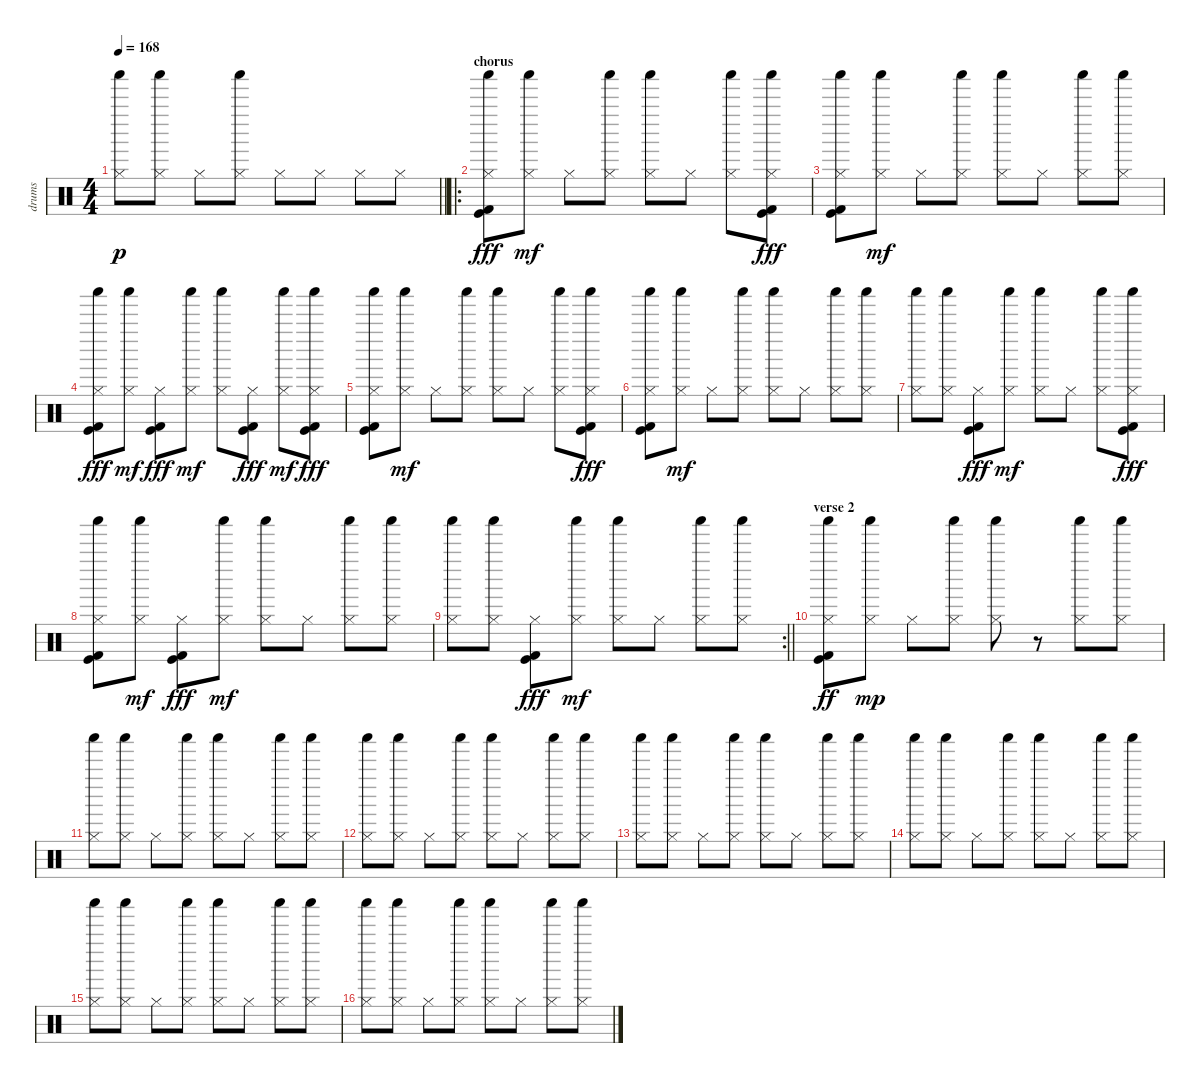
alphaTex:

\track ("drums" "drums") {instrument percussion}
\staff {score}
\articulation defaults
\ts (4 4)
\tempo 168
\clef neutral
\barLineRight lightlight
\ks c
("Hi-Hat (closed)" "Shaker (hit)").8{dy p} ("Hi-Hat (closed)" "Shaker (hit)").8 "Hi-Hat (closed)".8 ("Hi-Hat (closed)" "Shaker (hit)").8 "Hi-Hat (closed)".8 "Hi-Hat (closed)".8 "Hi-Hat (closed)".8 "Hi-Hat (closed)".8 |
\ro
\section ("" "chorus ")
("Hi-Hat (closed)" "Shaker (hit)" "Kick (hit) 2" "Kick (hit)").8{dy fff} ("Hi-Hat (closed)" "Shaker (hit)").8{dy mf} "Hi-Hat (closed)".8 ("Hi-Hat (closed)" "Shaker (hit)").8 ("Hi-Hat (closed)" "Shaker (hit)").8 "Hi-Hat (closed)".8 ("Hi-Hat (closed)" "Shaker (hit)").8 ("Hi-Hat (closed)" "Shaker (hit)" "Kick (hit) 2" "Kick (hit)").8{dy fff} |
("Hi-Hat (closed)" "Shaker (hit)" "Kick (hit) 2" "Kick (hit)").8 ("Hi-Hat (closed)" "Shaker (hit)").8{dy mf} "Hi-Hat (closed)".8 ("Hi-Hat (closed)" "Shaker (hit)").8 ("Hi-Hat (closed)" "Shaker (hit)").8 "Hi-Hat (closed)".8 ("Hi-Hat (closed)" "Shaker (hit)").8 ("Hi-Hat (closed)" "Shaker (hit)").8 |
("Hi-Hat (closed)" "Shaker (hit)" "Kick (hit) 2" "Kick (hit)").8{dy fff} ("Hi-Hat (closed)" "Shaker (hit)").8{dy mf} ("Hi-Hat (closed)" "Kick (hit) 2" "Kick (hit)").8{dy fff} ("Hi-Hat (closed)" "Shaker (hit)").8{dy mf} ("Hi-Hat (closed)" "Shaker (hit)").8 ("Hi-Hat (closed)" "Kick (hit) 2" "Kick (hit)").8{dy fff} ("Hi-Hat (closed)" "Shaker (hit)").8{dy mf} ("Hi-Hat (closed)" "Shaker (hit)" "Kick (hit) 2" "Kick (hit)").8{dy fff} |
("Hi-Hat (closed)" "Shaker (hit)" "Kick (hit) 2" "Kick (hit)").8 ("Hi-Hat (closed)" "Shaker (hit)").8{dy mf} "Hi-Hat (closed)".8 ("Hi-Hat (closed)" "Shaker (hit)").8 ("Hi-Hat (closed)" "Shaker (hit)").8 "Hi-Hat (closed)".8 ("Hi-Hat (closed)" "Shaker (hit)").8 ("Hi-Hat (closed)" "Shaker (hit)" "Kick (hit) 2" "Kick (hit)").8{dy fff} |
("Hi-Hat (closed)" "Shaker (hit)" "Kick (hit) 2" "Kick (hit)").8 ("Hi-Hat (closed)" "Shaker (hit)").8{dy mf} "Hi-Hat (closed)".8 ("Hi-Hat (closed)" "Shaker (hit)").8 ("Hi-Hat (closed)" "Shaker (hit)").8 "Hi-Hat (closed)".8 ("Hi-Hat (closed)" "Shaker (hit)").8 ("Hi-Hat (closed)" "Shaker (hit)").8 |
("Hi-Hat (closed)" "Shaker (hit)").8 ("Hi-Hat (closed)" "Shaker (hit)").8 ("Hi-Hat (closed)" "Kick (hit) 2" "Kick (hit)").8{dy fff} ("Hi-Hat (closed)" "Shaker (hit)").8{dy mf} ("Hi-Hat (closed)" "Shaker (hit)").8 "Hi-Hat (closed)".8 ("Hi-Hat (closed)" "Shaker (hit)").8 ("Hi-Hat (closed)" "Shaker (hit)" "Kick (hit) 2" "Kick (hit)").8{dy fff} |
("Hi-Hat (closed)" "Shaker (hit)" "Kick (hit) 2" "Kick (hit)").8 ("Hi-Hat (closed)" "Shaker (hit)").8{dy mf} ("Hi-Hat (closed)" "Kick (hit) 2" "Kick (hit)").8{dy fff} ("Hi-Hat (closed)" "Shaker (hit)").8{dy mf} ("Hi-Hat (closed)" "Shaker (hit)").8 "Hi-Hat (closed)".8 ("Hi-Hat (closed)" "Shaker (hit)").8 ("Hi-Hat (closed)" "Shaker (hit)").8 |
\rc 2
\barLineRight lightlight
("Hi-Hat (closed)" "Shaker (hit)").8 ("Hi-Hat (closed)" "Shaker (hit)").8 ("Hi-Hat (closed)" "Kick (hit) 2" "Kick (hit)").8{dy fff} ("Hi-Hat (closed)" "Shaker (hit)").8{dy mf} ("Hi-Hat (closed)" "Shaker (hit)").8 "Hi-Hat (closed)".8 ("Hi-Hat (closed)" "Shaker (hit)").8 ("Hi-Hat (closed)" "Shaker (hit)").8 |
\section ("" "verse 2")
("Hi-Hat (closed)" "Shaker (hit)" "Kick (hit) 2" "Kick (hit)").8{dy ff} ("Hi-Hat (closed)" "Shaker (hit)").8{dy mp} "Hi-Hat (closed)".8 ("Hi-Hat (closed)" "Shaker (hit)").8 ("Hi-Hat (closed)" "Shaker (hit)").8 r.8 ("Hi-Hat (closed)" "Shaker (hit)").8 ("Hi-Hat (closed)" "Shaker (hit)").8 |
("Hi-Hat (closed)" "Shaker (hit)").8 ("Hi-Hat (closed)" "Shaker (hit)").8 "Hi-Hat (closed)".8 ("Hi-Hat (closed)" "Shaker (hit)").8 ("Hi-Hat (closed)" "Shaker (hit)").8 "Hi-Hat (closed)".8 ("Hi-Hat (closed)" "Shaker (hit)").8 ("Hi-Hat (closed)" "Shaker (hit)").8 |
("Hi-Hat (closed)" "Shaker (hit)").8 ("Hi-Hat (closed)" "Shaker (hit)").8 "Hi-Hat (closed)".8 ("Hi-Hat (closed)" "Shaker (hit)").8 ("Hi-Hat (closed)" "Shaker (hit)").8 "Hi-Hat (closed)".8 ("Hi-Hat (closed)" "Shaker (hit)").8 ("Hi-Hat (closed)" "Shaker (hit)").8 |
("Hi-Hat (closed)" "Shaker (hit)").8 ("Hi-Hat (closed)" "Shaker (hit)").8 "Hi-Hat (closed)".8 ("Hi-Hat (closed)" "Shaker (hit)").8 ("Hi-Hat (closed)" "Shaker (hit)").8 "Hi-Hat (closed)".8 ("Hi-Hat (closed)" "Shaker (hit)").8 ("Hi-Hat (closed)" "Shaker (hit)").8 |
("Hi-Hat (closed)" "Shaker (hit)").8 ("Hi-Hat (closed)" "Shaker (hit)").8 "Hi-Hat (closed)".8 ("Hi-Hat (closed)" "Shaker (hit)").8 ("Hi-Hat (closed)" "Shaker (hit)").8 "Hi-Hat (closed)".8 ("Hi-Hat (closed)" "Shaker (hit)").8 ("Hi-Hat (closed)" "Shaker (hit)").8 |
("Hi-Hat (closed)" "Shaker (hit)").8 ("Hi-Hat (closed)" "Shaker (hit)").8 "Hi-Hat (closed)".8 ("Hi-Hat (closed)" "Shaker (hit)").8 ("Hi-Hat (closed)" "Shaker (hit)").8 "Hi-Hat (closed)".8 ("Hi-Hat (closed)" "Shaker (hit)").8 ("Hi-Hat (closed)" "Shaker (hit)").8 |
("Hi-Hat (closed)" "Shaker (hit)").8 ("Hi-Hat (closed)" "Shaker (hit)").8 "Hi-Hat (closed)".8 ("Hi-Hat (closed)" "Shaker (hit)").8 ("Hi-Hat (closed)" "Shaker (hit)").8 "Hi-Hat (closed)".8 ("Hi-Hat (closed)" "Shaker (hit)").8 ("Hi-Hat (closed)" "Shaker (hit)").8
